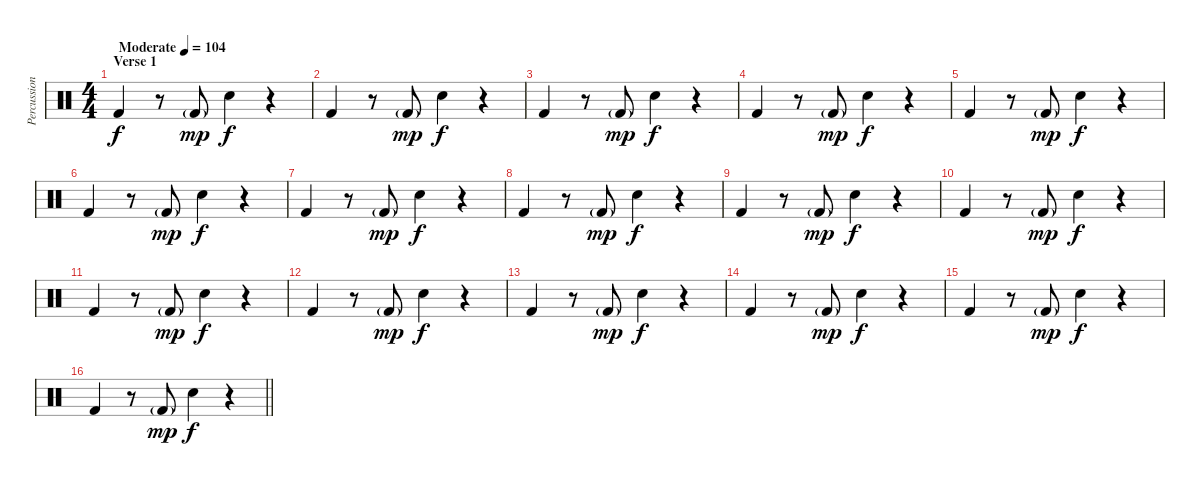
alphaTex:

\track ("Percussion" "Percussion") {instrument percussion}
\staff {score}
\articulation defaults
\ts (4 4)
\section ("" "Verse 1")
\tempo (104 "Moderate")
\clef neutral
\ks c "Kick (hit) 2".4{dy f}
r.8 "Kick (hit) 2"{g}.8{dy mp} "Snare (hit) 2".4{dy f} r.4 |
"Kick (hit) 2".4 r.8 "Kick (hit) 2"{g}.8{dy mp} "Snare (hit) 2".4{dy f} r.4 |
"Kick (hit) 2".4 r.8 "Kick (hit) 2"{g}.8{dy mp} "Snare (hit) 2".4{dy f} r.4 |
"Kick (hit) 2".4 r.8 "Kick (hit) 2"{g}.8{dy mp} "Snare (hit) 2".4{dy f} r.4 |
"Kick (hit) 2".4 r.8 "Kick (hit) 2"{g}.8{dy mp} "Snare (hit) 2".4{dy f} r.4 |
"Kick (hit) 2".4 r.8 "Kick (hit) 2"{g}.8{dy mp} "Snare (hit) 2".4{dy f} r.4 |
"Kick (hit) 2".4 r.8 "Kick (hit) 2"{g}.8{dy mp} "Snare (hit) 2".4{dy f} r.4 |
"Kick (hit) 2".4 r.8 "Kick (hit) 2"{g}.8{dy mp} "Snare (hit) 2".4{dy f} r.4 |
"Kick (hit) 2".4 r.8 "Kick (hit) 2"{g}.8{dy mp} "Snare (hit) 2".4{dy f} r.4 |
"Kick (hit) 2".4 r.8 "Kick (hit) 2"{g}.8{dy mp} "Snare (hit) 2".4{dy f} r.4 |
"Kick (hit) 2".4 r.8 "Kick (hit) 2"{g}.8{dy mp} "Snare (hit) 2".4{dy f} r.4 |
"Kick (hit) 2".4 r.8 "Kick (hit) 2"{g}.8{dy mp} "Snare (hit) 2".4{dy f} r.4 |
"Kick (hit) 2".4 r.8 "Kick (hit) 2"{g}.8{dy mp} "Snare (hit) 2".4{dy f} r.4 |
"Kick (hit) 2".4 r.8 "Kick (hit) 2"{g}.8{dy mp} "Snare (hit) 2".4{dy f} r.4 |
"Kick (hit) 2".4 r.8 "Kick (hit) 2"{g}.8{dy mp} "Snare (hit) 2".4{dy f} r.4 |
\barLineRight lightlight "Kick (hit) 2".4
r.8 "Kick (hit) 2"{g}.8{dy mp} "Snare (hit) 2".4{dy f} r.4
